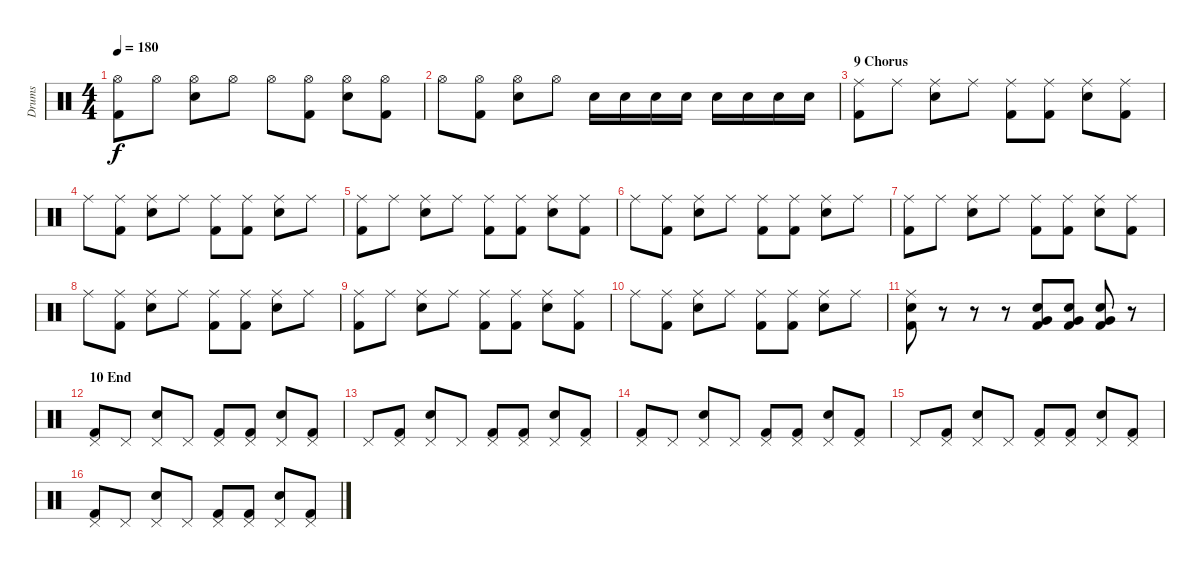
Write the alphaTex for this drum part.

\track ("Drums" "Drums") {instrument percussion}
\staff {score}
\articulation defaults
\ts (4 4)
\tempo 180
\clef neutral
\ks c
("Hi-Hat (open)" "Kick (hit) 2").8{dy f} "Hi-Hat (open)".8 ("Hi-Hat (open)" "Electric Snare (hit)").8 "Hi-Hat (open)".8 "Hi-Hat (open)".8 ("Hi-Hat (open)" "Kick (hit) 2").8 ("Hi-Hat (open)" "Electric Snare (hit)").8 ("Hi-Hat (open)" "Kick (hit) 2").8 |
"Hi-Hat (open)".8 ("Hi-Hat (open)" "Kick (hit) 2").8 ("Hi-Hat (open)" "Electric Snare (hit)").8 "Hi-Hat (open)".8 "Electric Snare (hit)".16 "Electric Snare (hit)".16 "Electric Snare (hit)".16 "Electric Snare (hit)".16 "Electric Snare (hit)".16 "Electric Snare (hit)".16 "Electric Snare (hit)".16 "Electric Snare (hit)".16 |
\section ("" "9 Chorus")
("Ride (middle)" "Kick (hit) 2").8 "Ride (middle)".8 ("Ride (middle)" "Electric Snare (hit)").8 "Ride (middle)".8 ("Ride (middle)" "Kick (hit) 2").8 ("Ride (middle)" "Kick (hit) 2").8 ("Ride (middle)" "Electric Snare (hit)").8 ("Ride (middle)" "Kick (hit) 2").8 |
"Ride (middle)".8 ("Ride (middle)" "Kick (hit) 2").8 ("Ride (middle)" "Electric Snare (hit)").8 "Ride (middle)".8 ("Ride (middle)" "Kick (hit) 2").8 ("Ride (middle)" "Kick (hit) 2").8 ("Ride (middle)" "Electric Snare (hit)").8 "Ride (middle)".8 |
("Ride (middle)" "Kick (hit) 2").8 "Ride (middle)".8 ("Ride (middle)" "Electric Snare (hit)").8 "Ride (middle)".8 ("Ride (middle)" "Kick (hit) 2").8 ("Ride (middle)" "Kick (hit) 2").8 ("Ride (middle)" "Electric Snare (hit)").8 ("Ride (middle)" "Kick (hit) 2").8 |
"Ride (middle)".8 ("Ride (middle)" "Kick (hit) 2").8 ("Ride (middle)" "Electric Snare (hit)").8 "Ride (middle)".8 ("Ride (middle)" "Kick (hit) 2").8 ("Ride (middle)" "Kick (hit) 2").8 ("Ride (middle)" "Electric Snare (hit)").8 "Ride (middle)".8 |
("Ride (middle)" "Kick (hit) 2").8 "Ride (middle)".8 ("Ride (middle)" "Electric Snare (hit)").8 "Ride (middle)".8 ("Ride (middle)" "Kick (hit) 2").8 ("Ride (middle)" "Kick (hit) 2").8 ("Ride (middle)" "Electric Snare (hit)").8 ("Ride (middle)" "Kick (hit) 2").8 |
"Ride (middle)".8 ("Ride (middle)" "Kick (hit) 2").8 ("Ride (middle)" "Electric Snare (hit)").8 "Ride (middle)".8 ("Ride (middle)" "Kick (hit) 2").8 ("Ride (middle)" "Kick (hit) 2").8 ("Ride (middle)" "Electric Snare (hit)").8 "Ride (middle)".8 |
("Ride (middle)" "Kick (hit) 2").8 "Ride (middle)".8 ("Ride (middle)" "Electric Snare (hit)").8 "Ride (middle)".8 ("Ride (middle)" "Kick (hit) 2").8 ("Ride (middle)" "Kick (hit) 2").8 ("Ride (middle)" "Electric Snare (hit)").8 ("Ride (middle)" "Kick (hit) 2").8 |
"Ride (middle)".8 ("Ride (middle)" "Kick (hit) 2").8 ("Ride (middle)" "Electric Snare (hit)").8 "Ride (middle)".8 ("Ride (middle)" "Kick (hit) 2").8 ("Ride (middle)" "Kick (hit) 2").8 ("Ride (middle)" "Electric Snare (hit)").8 "Ride (middle)".8 |
("Ride (middle)" "Electric Snare (hit)" "Kick (hit) 2").8 r.8 r.8 r.8 ("Very Low Tom (hit)" "Electric Snare (hit)" "Kick (hit) 2").8 ("Very Low Tom (hit)" "Electric Snare (hit)" "Kick (hit) 2").8 ("Very Low Tom (hit)" "Electric Snare (hit)" "Kick (hit) 2").8 r.8 |
\section ("" "10 End")
("Pedal Hi-Hat (hit)" "Kick (hit) 2").8 "Pedal Hi-Hat (hit)".8 ("Pedal Hi-Hat (hit)" "Electric Snare (hit)").8 "Pedal Hi-Hat (hit)".8 ("Pedal Hi-Hat (hit)" "Kick (hit) 2").8 ("Pedal Hi-Hat (hit)" "Kick (hit) 2").8 ("Pedal Hi-Hat (hit)" "Electric Snare (hit)").8 ("Pedal Hi-Hat (hit)" "Kick (hit) 2").8 |
"Pedal Hi-Hat (hit)".8 ("Pedal Hi-Hat (hit)" "Kick (hit) 2").8 ("Pedal Hi-Hat (hit)" "Electric Snare (hit)").8 "Pedal Hi-Hat (hit)".8 ("Pedal Hi-Hat (hit)" "Kick (hit) 2").8 ("Pedal Hi-Hat (hit)" "Kick (hit) 2").8 ("Pedal Hi-Hat (hit)" "Electric Snare (hit)").8 ("Pedal Hi-Hat (hit)" "Kick (hit) 2").8 |
("Pedal Hi-Hat (hit)" "Kick (hit) 2").8 "Pedal Hi-Hat (hit)".8 ("Pedal Hi-Hat (hit)" "Electric Snare (hit)").8 "Pedal Hi-Hat (hit)".8 ("Pedal Hi-Hat (hit)" "Kick (hit) 2").8 ("Pedal Hi-Hat (hit)" "Kick (hit) 2").8 ("Pedal Hi-Hat (hit)" "Electric Snare (hit)").8 ("Pedal Hi-Hat (hit)" "Kick (hit) 2").8 |
"Pedal Hi-Hat (hit)".8 ("Pedal Hi-Hat (hit)" "Kick (hit) 2").8 ("Pedal Hi-Hat (hit)" "Electric Snare (hit)").8 "Pedal Hi-Hat (hit)".8 ("Pedal Hi-Hat (hit)" "Kick (hit) 2").8 ("Pedal Hi-Hat (hit)" "Kick (hit) 2").8 ("Pedal Hi-Hat (hit)" "Electric Snare (hit)").8 ("Pedal Hi-Hat (hit)" "Kick (hit) 2").8 |
("Pedal Hi-Hat (hit)" "Kick (hit) 2").8 "Pedal Hi-Hat (hit)".8 ("Pedal Hi-Hat (hit)" "Electric Snare (hit)").8 "Pedal Hi-Hat (hit)".8 ("Pedal Hi-Hat (hit)" "Kick (hit) 2").8 ("Pedal Hi-Hat (hit)" "Kick (hit) 2").8 ("Pedal Hi-Hat (hit)" "Electric Snare (hit)").8 ("Pedal Hi-Hat (hit)" "Kick (hit) 2").8
